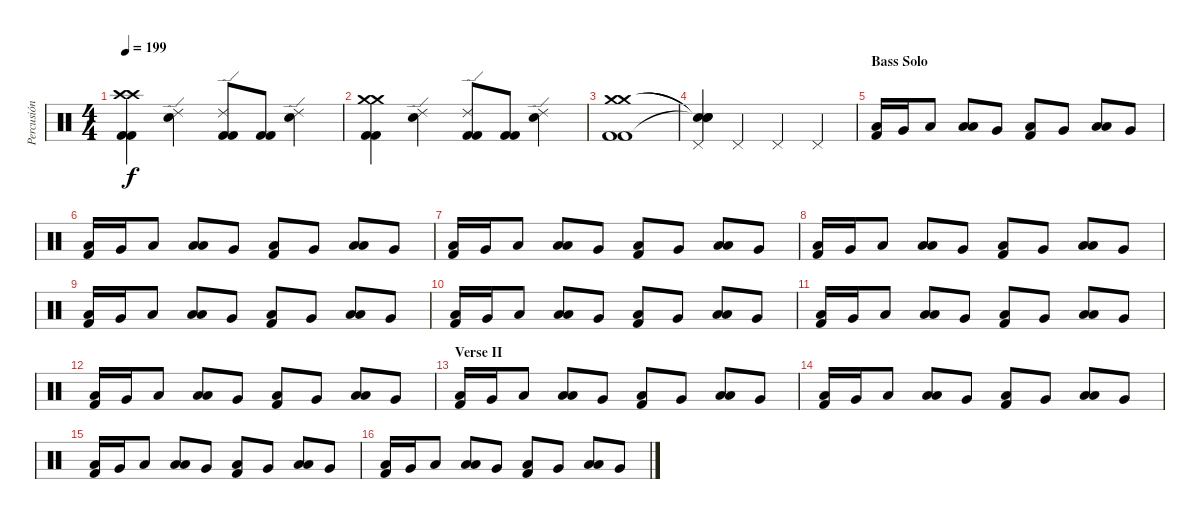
\track ("Percusión" "Percusión") {instrument percussion}
\staff {score}
\articulation defaults
\ts (4 4)
\tempo 199
\clef neutral
\ks c
("Crash high (hit)" "Kick (hit) 2" "Kick (hit) 2" "Crash high (hit)").4{dy f} ("Ride (edge) 2" "Electric Snare (hit)").4 ("Ride (edge) 2" "Kick (hit) 2" "Kick (hit) 2").8 ("Kick (hit) 2" "Kick (hit) 2").8 ("Ride (edge) 2" "Electric Snare (hit)").4 |
("Crash medium (hit)" "Kick (hit) 2" "Kick (hit) 2" "Crash medium (hit)").4 ("Ride (edge) 2" "Electric Snare (hit)").4 ("Ride (edge) 2" "Kick (hit) 2" "Kick (hit) 2").8 ("Kick (hit) 2" "Kick (hit) 2").8 ("Ride (edge) 2" "Electric Snare (hit)").4 |
("Kick (hit) 2" "Kick (hit) 2" "Crash medium (hit)" "Crash medium (hit)").1 |
("Pedal Hi-Hat (hit)" "Snare (hit)"{t} "Snare (hit)"{t} "Snare (hit)"{t}).4 "Pedal Hi-Hat (hit)".4 "Pedal Hi-Hat (hit)".4 "Pedal Hi-Hat (hit)".4 |
\section ("" "Bass Solo")
("Kick (hit) 2" "Low Floor Tom (hit)").16 "Very Low Tom (hit)".16 "Low Floor Tom (hit)".8 ("Low Tom (hit)" "Low Floor Tom (hit)").8 "Very Low Tom (hit)".8 ("Kick (hit) 2" "Low Floor Tom (hit)").8 "Very Low Tom (hit)".8 ("Low Tom (hit)" "Low Floor Tom (hit)").8 "Very Low Tom (hit)".8 |
("Kick (hit) 2" "Low Floor Tom (hit)").16 "Very Low Tom (hit)".16 "Low Floor Tom (hit)".8 ("Low Tom (hit)" "Low Floor Tom (hit)").8 "Very Low Tom (hit)".8 ("Kick (hit) 2" "Low Floor Tom (hit)").8 "Very Low Tom (hit)".8 ("Low Tom (hit)" "Low Floor Tom (hit)").8 "Very Low Tom (hit)".8 |
("Kick (hit) 2" "Low Floor Tom (hit)").16 "Very Low Tom (hit)".16 "Low Floor Tom (hit)".8 ("Low Tom (hit)" "Low Floor Tom (hit)").8 "Very Low Tom (hit)".8 ("Kick (hit) 2" "Low Floor Tom (hit)").8 "Very Low Tom (hit)".8 ("Low Tom (hit)" "Low Floor Tom (hit)").8 "Very Low Tom (hit)".8 |
("Kick (hit) 2" "Low Floor Tom (hit)").16 "Very Low Tom (hit)".16 "Low Floor Tom (hit)".8 ("Low Tom (hit)" "Low Floor Tom (hit)").8 "Very Low Tom (hit)".8 ("Kick (hit) 2" "Low Floor Tom (hit)").8 "Very Low Tom (hit)".8 ("Low Tom (hit)" "Low Floor Tom (hit)").8 "Very Low Tom (hit)".8 |
("Kick (hit) 2" "Low Floor Tom (hit)").16 "Very Low Tom (hit)".16 "Low Floor Tom (hit)".8 ("Low Tom (hit)" "Low Floor Tom (hit)").8 "Very Low Tom (hit)".8 ("Kick (hit) 2" "Low Floor Tom (hit)").8 "Very Low Tom (hit)".8 ("Low Tom (hit)" "Low Floor Tom (hit)").8 "Very Low Tom (hit)".8 |
("Kick (hit) 2" "Low Floor Tom (hit)").16 "Very Low Tom (hit)".16 "Low Floor Tom (hit)".8 ("Low Tom (hit)" "Low Floor Tom (hit)").8 "Very Low Tom (hit)".8 ("Kick (hit) 2" "Low Floor Tom (hit)").8 "Very Low Tom (hit)".8 ("Low Tom (hit)" "Low Floor Tom (hit)").8 "Very Low Tom (hit)".8 |
("Kick (hit) 2" "Low Floor Tom (hit)").16 "Very Low Tom (hit)".16 "Low Floor Tom (hit)".8 ("Low Tom (hit)" "Low Floor Tom (hit)").8 "Very Low Tom (hit)".8 ("Kick (hit) 2" "Low Floor Tom (hit)").8 "Very Low Tom (hit)".8 ("Low Tom (hit)" "Low Floor Tom (hit)").8 "Very Low Tom (hit)".8 |
("Kick (hit) 2" "Low Floor Tom (hit)").16 "Very Low Tom (hit)".16 "Low Floor Tom (hit)".8 ("Low Tom (hit)" "Low Floor Tom (hit)").8 "Very Low Tom (hit)".8 ("Kick (hit) 2" "Low Floor Tom (hit)").8 "Very Low Tom (hit)".8 ("Low Tom (hit)" "Low Floor Tom (hit)").8 "Very Low Tom (hit)".8 |
\section ("" "Verse II")
("Kick (hit) 2" "Low Floor Tom (hit)").16 "Very Low Tom (hit)".16 "Low Floor Tom (hit)".8 ("Low Tom (hit)" "Low Floor Tom (hit)").8 "Very Low Tom (hit)".8 ("Kick (hit) 2" "Low Floor Tom (hit)").8 "Very Low Tom (hit)".8 ("Low Tom (hit)" "Low Floor Tom (hit)").8 "Very Low Tom (hit)".8 |
("Kick (hit) 2" "Low Floor Tom (hit)").16 "Very Low Tom (hit)".16 "Low Floor Tom (hit)".8 ("Low Tom (hit)" "Low Floor Tom (hit)").8 "Very Low Tom (hit)".8 ("Kick (hit) 2" "Low Floor Tom (hit)").8 "Very Low Tom (hit)".8 ("Low Tom (hit)" "Low Floor Tom (hit)").8 "Very Low Tom (hit)".8 |
("Kick (hit) 2" "Low Floor Tom (hit)").16 "Very Low Tom (hit)".16 "Low Floor Tom (hit)".8 ("Low Tom (hit)" "Low Floor Tom (hit)").8 "Very Low Tom (hit)".8 ("Kick (hit) 2" "Low Floor Tom (hit)").8 "Very Low Tom (hit)".8 ("Low Tom (hit)" "Low Floor Tom (hit)").8 "Very Low Tom (hit)".8 |
("Kick (hit) 2" "Low Floor Tom (hit)").16 "Very Low Tom (hit)".16 "Low Floor Tom (hit)".8 ("Low Tom (hit)" "Low Floor Tom (hit)").8 "Very Low Tom (hit)".8 ("Kick (hit) 2" "Low Floor Tom (hit)").8 "Very Low Tom (hit)".8 ("Low Tom (hit)" "Low Floor Tom (hit)").8 "Very Low Tom (hit)".8
